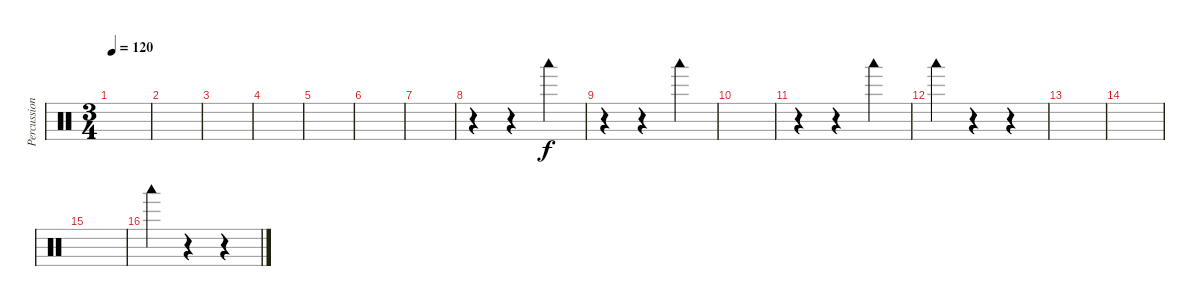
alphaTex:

\track ("Percussion" "Percussion") {instrument percussion}
\staff {score}
\articulation defaults
\ts (3 4)
\tempo 120
\clef neutral
\ks c
|
|
|
|
|
|
|
r.4 r.4 "Woodblock low (hit)".4 |
r.4 r.4 "Woodblock low (hit)".4 |
|
r.4 r.4 "Woodblock low (hit)".4 |
"Woodblock low (hit)".4 r.4 r.4 |
|
|
|
"Woodblock low (hit)".4 r.4 r.4
